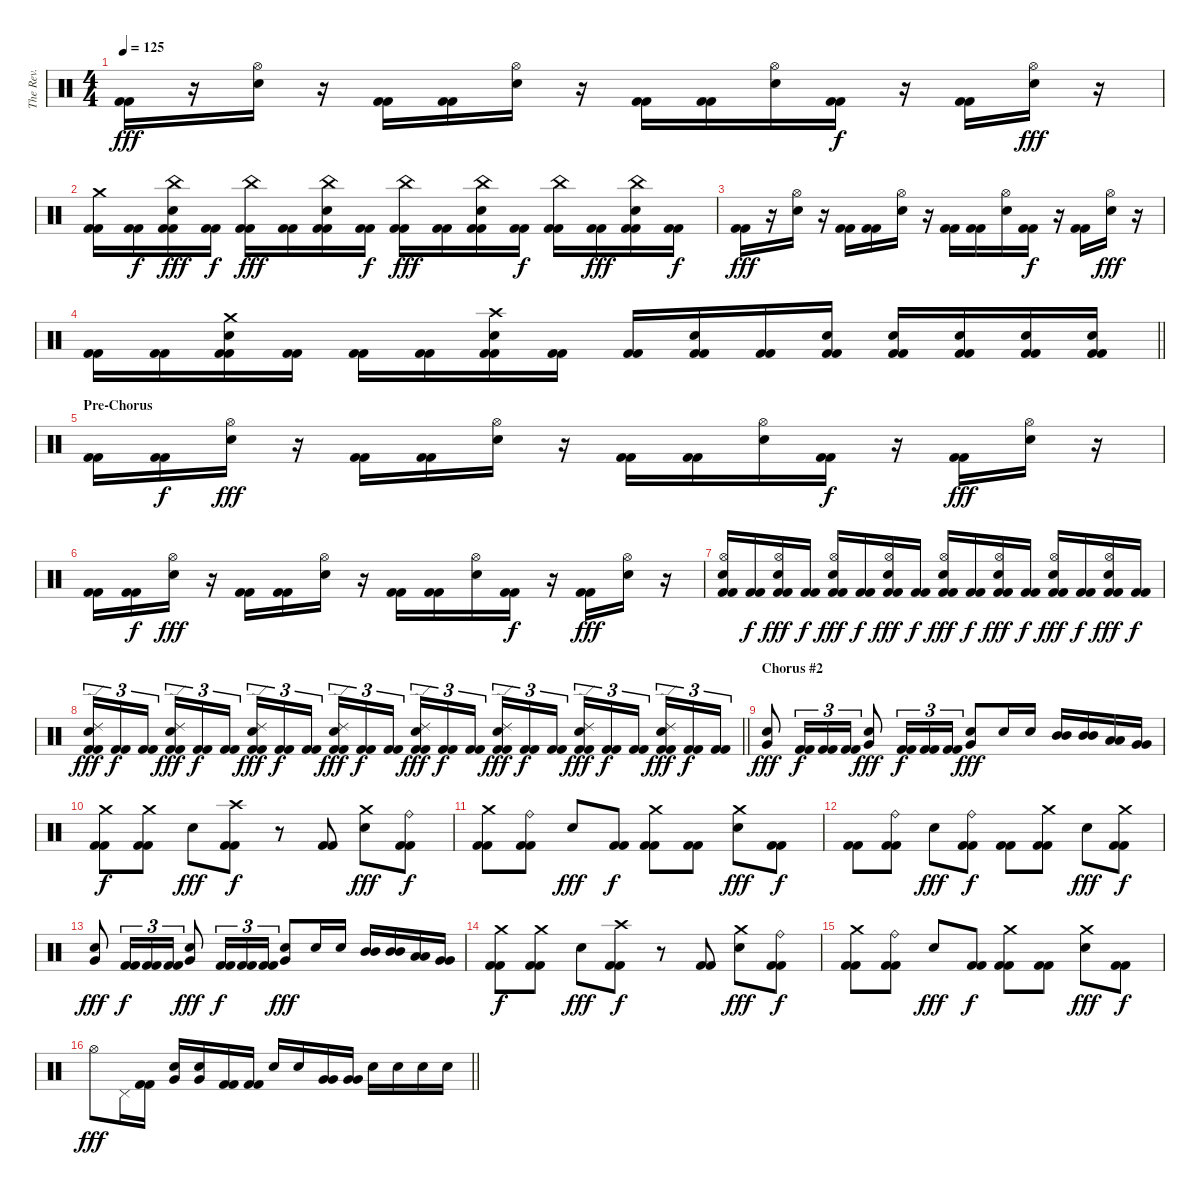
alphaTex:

\track ("The Rev." "The Rev.") {instrument percussion}
\staff {score}
\articulation defaults
\ts (4 4)
\tempo 125
\clef neutral
\ks c
("Kick (hit) 2" "Kick (hit) 2").16{dy fff} r.16 ("Hi-Hat (open)" "Electric Snare (hit)").16 r.16 ("Kick (hit) 2" "Kick (hit) 2").16 ("Kick (hit) 2" "Kick (hit) 2").16 ("Hi-Hat (open)" "Electric Snare (hit)").16 r.16 ("Kick (hit) 2" "Kick (hit) 2").16 ("Kick (hit) 2" "Kick (hit) 2").16 ("Hi-Hat (open)" "Electric Snare (hit)").16 ("Kick (hit) 2" "Kick (hit) 2").16{dy f} r.16 ("Kick (hit) 2" "Kick (hit) 2").16 ("Hi-Hat (open)" "Electric Snare (hit)").16{dy fff} r.16 |
("Crash medium (hit)" "Kick (hit) 2" "Kick (hit) 2").16 ("Kick (hit) 2" "Kick (hit) 2").16{dy f} ("China (hit)" "Electric Snare (hit)" "Kick (hit) 2" "Kick (hit) 2").16{dy fff} ("Kick (hit) 2" "Kick (hit) 2").16{dy f} ("China (hit)" "Kick (hit) 2" "Kick (hit) 2").16{dy fff} ("Kick (hit) 2" "Kick (hit) 2").16 ("China (hit)" "Electric Snare (hit)" "Kick (hit) 2" "Kick (hit) 2").16 ("Kick (hit) 2" "Kick (hit) 2").16{dy f} ("China (hit)" "Kick (hit) 2" "Kick (hit) 2").16{dy fff} ("Kick (hit) 2" "Kick (hit) 2").16 ("China (hit)" "Electric Snare (hit)" "Kick (hit) 2" "Kick (hit) 2").16 ("Kick (hit) 2" "Kick (hit) 2").16{dy f} ("China (hit)" "Kick (hit) 2" "Kick (hit) 2").16 ("Kick (hit) 2" "Kick (hit) 2").16{dy fff} ("China (hit)" "Electric Snare (hit)" "Kick (hit) 2" "Kick (hit) 2").16 ("Kick (hit) 2" "Kick (hit) 2").16{dy f} |
("Kick (hit) 2" "Kick (hit) 2").16{dy fff} r.16 ("Hi-Hat (open)" "Electric Snare (hit)").16 r.16 ("Kick (hit) 2" "Kick (hit) 2").16 ("Kick (hit) 2" "Kick (hit) 2").16 ("Hi-Hat (open)" "Electric Snare (hit)").16 r.16 ("Kick (hit) 2" "Kick (hit) 2").16 ("Kick (hit) 2" "Kick (hit) 2").16 ("Hi-Hat (open)" "Electric Snare (hit)").16 ("Kick (hit) 2" "Kick (hit) 2").16{dy f} r.16 ("Kick (hit) 2" "Kick (hit) 2").16 ("Hi-Hat (open)" "Electric Snare (hit)").16{dy fff} r.16 |
\barLineRight lightlight
("Kick (hit) 2" "Kick (hit) 2").16 ("Kick (hit) 2" "Kick (hit) 2").16 ("Crash medium (hit)" "Electric Snare (hit)" "Kick (hit) 2" "Kick (hit) 2").16 ("Kick (hit) 2" "Kick (hit) 2").16 ("Kick (hit) 2" "Kick (hit) 2").16 ("Kick (hit) 2" "Kick (hit) 2").16 ("Crash high (hit)" "Electric Snare (hit)" "Kick (hit) 2" "Kick (hit) 2").16 ("Kick (hit) 2" "Kick (hit) 2").16 ("Kick (hit) 2" "Kick (hit) 2").16 ("Electric Snare (hit)" "Kick (hit) 2" "Kick (hit) 2").16 ("Kick (hit) 2" "Kick (hit) 2").16 ("Electric Snare (hit)" "Kick (hit) 2" "Kick (hit) 2").16 ("Electric Snare (hit)" "Kick (hit) 2" "Kick (hit) 2").16 ("Electric Snare (hit)" "Kick (hit) 2" "Kick (hit) 2").16 ("Electric Snare (hit)" "Kick (hit) 2" "Kick (hit) 2").16 ("Electric Snare (hit)" "Kick (hit) 2" "Kick (hit) 2").16 |
\section ("" "Pre-Chorus")
("Kick (hit) 2" "Kick (hit) 2").16 ("Kick (hit) 2" "Kick (hit) 2").16{dy f} ("Hi-Hat (open)" "Electric Snare (hit)").16{dy fff} r.16 ("Kick (hit) 2" "Kick (hit) 2").16 ("Kick (hit) 2" "Kick (hit) 2").16 ("Hi-Hat (open)" "Electric Snare (hit)").16 r.16 ("Kick (hit) 2" "Kick (hit) 2").16 ("Kick (hit) 2" "Kick (hit) 2").16 ("Hi-Hat (open)" "Electric Snare (hit)").16 ("Kick (hit) 2" "Kick (hit) 2").16{dy f} r.16 ("Kick (hit) 2" "Kick (hit) 2").16{dy fff} ("Hi-Hat (open)" "Electric Snare (hit)").16 r.16 |
("Kick (hit) 2" "Kick (hit) 2").16 ("Kick (hit) 2" "Kick (hit) 2").16{dy f} ("Hi-Hat (open)" "Electric Snare (hit)").16{dy fff} r.16 ("Kick (hit) 2" "Kick (hit) 2").16 ("Kick (hit) 2" "Kick (hit) 2").16 ("Hi-Hat (open)" "Electric Snare (hit)").16 r.16 ("Kick (hit) 2" "Kick (hit) 2").16 ("Kick (hit) 2" "Kick (hit) 2").16 ("Hi-Hat (open)" "Electric Snare (hit)").16 ("Kick (hit) 2" "Kick (hit) 2").16{dy f} r.16 ("Kick (hit) 2" "Kick (hit) 2").16{dy fff} ("Hi-Hat (open)" "Electric Snare (hit)").16 r.16 |
("Hi-Hat (open)" "Electric Snare (hit)" "Kick (hit) 2" "Kick (hit) 2").16 ("Kick (hit) 2" "Kick (hit) 2").16{dy f} ("Hi-Hat (open)" "Electric Snare (hit)" "Kick (hit) 2" "Kick (hit) 2").16{dy fff} ("Kick (hit) 2" "Kick (hit) 2").16{dy f} ("Hi-Hat (open)" "Electric Snare (hit)" "Kick (hit) 2" "Kick (hit) 2").16{dy fff} ("Kick (hit) 2" "Kick (hit) 2").16{dy f} ("Hi-Hat (open)" "Electric Snare (hit)" "Kick (hit) 2" "Kick (hit) 2").16{dy fff} ("Kick (hit) 2" "Kick (hit) 2").16{dy f} ("Hi-Hat (open)" "Electric Snare (hit)" "Kick (hit) 2" "Kick (hit) 2").16{dy fff} ("Kick (hit) 2" "Kick (hit) 2").16{dy f} ("Hi-Hat (open)" "Electric Snare (hit)" "Kick (hit) 2" "Kick (hit) 2").16{dy fff} ("Kick (hit) 2" "Kick (hit) 2").16{dy f} ("Hi-Hat (open)" "Electric Snare (hit)" "Kick (hit) 2" "Kick (hit) 2").16{dy fff} ("Kick (hit) 2" "Kick (hit) 2").16{dy f} ("Hi-Hat (open)" "Electric Snare (hit)" "Kick (hit) 2" "Kick (hit) 2").16{dy fff} ("Kick (hit) 2" "Kick (hit) 2").16{dy f} |
\barLineRight lightlight
("Ride (edge) 2" "Electric Snare (hit)" "Kick (hit) 2" "Kick (hit) 2").16{tu (3 2) dy fff} ("Kick (hit) 2" "Kick (hit) 2").16{tu (3 2) dy f} ("Kick (hit) 2" "Kick (hit) 2").16{tu (3 2) beam splitsecondary} ("Ride (edge) 2" "Electric Snare (hit)" "Kick (hit) 2" "Kick (hit) 2").16{tu (3 2) dy fff} ("Kick (hit) 2" "Kick (hit) 2").16{tu (3 2) dy f} ("Kick (hit) 2" "Kick (hit) 2").16{tu (3 2)} ("Ride (edge) 2" "Electric Snare (hit)" "Kick (hit) 2" "Kick (hit) 2").16{tu (3 2) dy fff} ("Kick (hit) 2" "Kick (hit) 2").16{tu (3 2) dy f} ("Kick (hit) 2" "Kick (hit) 2").16{tu (3 2) beam splitsecondary} ("Ride (edge) 2" "Electric Snare (hit)" "Kick (hit) 2" "Kick (hit) 2").16{tu (3 2) dy fff} ("Kick (hit) 2" "Kick (hit) 2").16{tu (3 2) dy f} ("Kick (hit) 2" "Kick (hit) 2").16{tu (3 2)} ("Ride (edge) 2" "Electric Snare (hit)" "Kick (hit) 2" "Kick (hit) 2").16{tu (3 2) dy fff} ("Kick (hit) 2" "Kick (hit) 2").16{tu (3 2) dy f} ("Kick (hit) 2" "Kick (hit) 2").16{tu (3 2) beam splitsecondary} ("Ride (edge) 2" "Electric Snare (hit)" "Kick (hit) 2" "Kick (hit) 2").16{tu (3 2) dy fff} ("Kick (hit) 2" "Kick (hit) 2").16{tu (3 2) dy f} ("Kick (hit) 2" "Kick (hit) 2").16{tu (3 2)} ("Ride (edge) 2" "Electric Snare (hit)" "Kick (hit) 2" "Kick (hit) 2").16{tu (3 2) dy fff} ("Kick (hit) 2" "Kick (hit) 2").16{tu (3 2) dy f} ("Kick (hit) 2" "Kick (hit) 2").16{tu (3 2) beam splitsecondary} ("Ride (edge) 2" "Electric Snare (hit)" "Kick (hit) 2" "Kick (hit) 2").16{tu (3 2) dy fff} ("Kick (hit) 2" "Kick (hit) 2").16{tu (3 2) dy f} ("Kick (hit) 2" "Kick (hit) 2").16{tu (3 2)} |
\section ("" "Chorus #2")
("Electric Snare (hit)" "Very Low Tom (hit)").8{dy fff} ("Kick (hit) 2" "Kick (hit) 2").16{tu (3 2) dy f} ("Kick (hit) 2" "Kick (hit) 2").16{tu (3 2)} ("Kick (hit) 2" "Kick (hit) 2").16{tu (3 2)} ("Electric Snare (hit)" "Very Low Tom (hit)").8{dy fff} ("Kick (hit) 2" "Kick (hit) 2").16{tu (3 2) dy f} ("Kick (hit) 2" "Kick (hit) 2").16{tu (3 2)} ("Kick (hit) 2" "Kick (hit) 2").16{tu (3 2)} ("Electric Snare (hit)" "Very Low Tom (hit)").8{dy fff} "Electric Snare (hit)".16 "Electric Snare (hit)".16 ("Mid Tom (hit)" "Mid Tom (hit)").16 ("Mid Tom (hit)" "Mid Tom (hit)").16 ("Low Tom (hit)" "Low Tom (hit)").16 ("Very Low Tom (hit)" "Very Low Tom (hit)").16 |
("Crash medium (hit)" "Kick (hit) 2" "Kick (hit) 2").8{dy f} ("Crash medium (hit)" "Kick (hit) 2" "Kick (hit) 2").8 "Electric Snare (hit)".8{dy fff} ("Crash high (hit)" "Kick (hit) 2" "Kick (hit) 2").8{dy f} r.8 ("Kick (hit) 2" "Kick (hit) 2").8 ("Crash medium (hit)" "Electric Snare (hit)").8{dy fff} ("Ride (bell)" "Kick (hit) 2" "Kick (hit) 2").8{dy f} |
("Crash medium (hit)" "Kick (hit) 2" "Kick (hit) 2").8 ("Ride (bell)" "Kick (hit) 2" "Kick (hit) 2").8 "Electric Snare (hit)".8{dy fff} ("Kick (hit) 2" "Kick (hit) 2").8{dy f} ("Crash medium (hit)" "Kick (hit) 2" "Kick (hit) 2").8 ("Kick (hit) 2" "Kick (hit) 2").8 ("Crash medium (hit)" "Electric Snare (hit)").8{dy fff} ("Kick (hit) 2" "Kick (hit) 2").8{dy f} |
("Kick (hit) 2" "Kick (hit) 2").8 ("Ride (bell)" "Kick (hit) 2" "Kick (hit) 2").8 "Electric Snare (hit)".8{dy fff} ("Ride (bell)" "Kick (hit) 2" "Kick (hit) 2").8{dy f} ("Kick (hit) 2" "Kick (hit) 2").8 ("Crash medium (hit)" "Kick (hit) 2" "Kick (hit) 2").8 "Electric Snare (hit)".8{dy fff} ("Crash medium (hit)" "Kick (hit) 2" "Kick (hit) 2").8{dy f} |
("Electric Snare (hit)" "Very Low Tom (hit)").8{dy fff} ("Kick (hit) 2" "Kick (hit) 2").16{tu (3 2) dy f} ("Kick (hit) 2" "Kick (hit) 2").16{tu (3 2)} ("Kick (hit) 2" "Kick (hit) 2").16{tu (3 2)} ("Electric Snare (hit)" "Very Low Tom (hit)").8{dy fff} ("Kick (hit) 2" "Kick (hit) 2").16{tu (3 2) dy f} ("Kick (hit) 2" "Kick (hit) 2").16{tu (3 2)} ("Kick (hit) 2" "Kick (hit) 2").16{tu (3 2)} ("Electric Snare (hit)" "Very Low Tom (hit)").8{dy fff} "Electric Snare (hit)".16 "Electric Snare (hit)".16 ("Mid Tom (hit)" "Mid Tom (hit)").16 ("Mid Tom (hit)" "Mid Tom (hit)").16 ("Low Tom (hit)" "Low Tom (hit)").16 ("Very Low Tom (hit)" "Very Low Tom (hit)").16 |
("Crash medium (hit)" "Kick (hit) 2" "Kick (hit) 2").8{dy f} ("Crash medium (hit)" "Kick (hit) 2" "Kick (hit) 2").8 "Electric Snare (hit)".8{dy fff} ("Crash high (hit)" "Kick (hit) 2" "Kick (hit) 2").8{dy f} r.8 ("Kick (hit) 2" "Kick (hit) 2").8 ("Crash medium (hit)" "Electric Snare (hit)").8{dy fff} ("Ride (bell)" "Kick (hit) 2" "Kick (hit) 2").8{dy f} |
("Crash medium (hit)" "Kick (hit) 2" "Kick (hit) 2").8 ("Ride (bell)" "Kick (hit) 2" "Kick (hit) 2").8 "Electric Snare (hit)".8{dy fff} ("Kick (hit) 2" "Kick (hit) 2").8{dy f} ("Crash medium (hit)" "Kick (hit) 2" "Kick (hit) 2").8 ("Kick (hit) 2" "Kick (hit) 2").8 ("Crash medium (hit)" "Electric Snare (hit)").8{dy fff} ("Kick (hit) 2" "Kick (hit) 2").8{dy f} |
\barLineRight lightlight "Hi-Hat (open)".8{dy fff} "Pedal Hi-Hat (hit)".16
("Kick (hit) 2" "Kick (hit) 2").16 ("Very Low Tom (hit)" "Electric Snare (hit)").16 ("Very Low Tom (hit)" "Electric Snare (hit)").16 ("Kick (hit) 2" "Kick (hit) 2").16 ("Kick (hit) 2" "Kick (hit) 2").16 "Electric Snare (hit)".16 "Electric Snare (hit)".16 ("Very Low Tom (hit)" "Very Low Tom (hit)").16 ("Very Low Tom (hit)" "Very Low Tom (hit)").16 "Electric Snare (hit)".16 "Electric Snare (hit)".16 "Electric Snare (hit)".16 "Electric Snare (hit)".16
